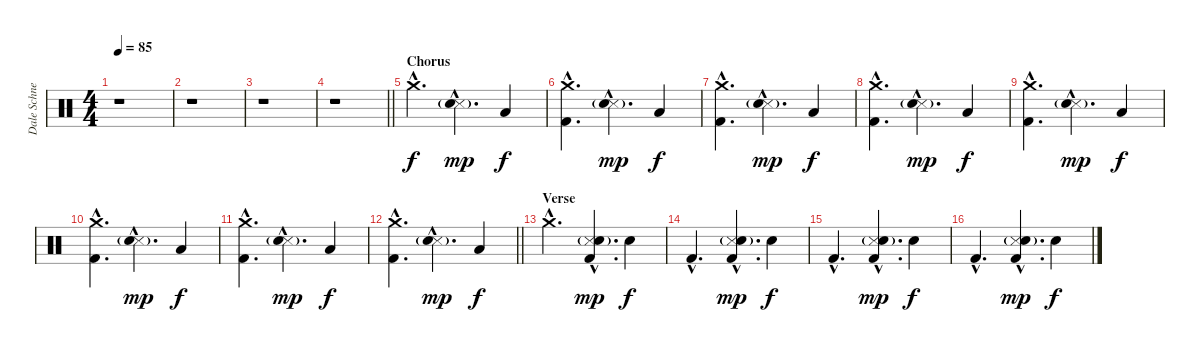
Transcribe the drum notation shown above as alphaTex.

\track ("Dale Schnettler (Drums)" "Dale Schne") {instrument percussion}
\staff {score}
\articulation defaults
\ts (4 4)
\tempo 85
\clef neutral
\ks c
r.1{dy f} |
r.1 |
r.1 |
\barLineRight lightlight
r.1 |
\section ("" "Chorus")
"Crash medium (hit)"{hac}.4{d} ("Snare (side stick) 3"{hac} "Electric Snare (hit)"{g hac}).4{d dy mp} "Low Tom (hit)".4{dy f} |
("Crash medium (hit)"{hac} "Kick (hit) 2"{hac}).4{d} ("Snare (side stick) 3"{hac} "Electric Snare (hit)"{g hac}).4{d dy mp} "Low Tom (hit)".4{dy f} |
("Crash medium (hit)"{hac} "Kick (hit) 2"{hac}).4{d} ("Snare (side stick) 3"{hac} "Electric Snare (hit)"{g hac}).4{d dy mp} "Low Tom (hit)".4{dy f} |
("Crash medium (hit)"{hac} "Kick (hit) 2"{hac}).4{d} ("Snare (side stick) 3"{hac} "Electric Snare (hit)"{g hac}).4{d dy mp} "Low Tom (hit)".4{dy f} |
("Crash medium (hit)"{hac} "Kick (hit) 2"{hac}).4{d} ("Snare (side stick) 3"{hac} "Electric Snare (hit)"{g hac}).4{d dy mp} "Low Tom (hit)".4{dy f} |
("Crash medium (hit)"{hac} "Kick (hit) 2"{hac}).4{d} ("Snare (side stick) 3"{hac} "Electric Snare (hit)"{g hac}).4{d dy mp} "Low Tom (hit)".4{dy f} |
("Crash medium (hit)"{hac} "Kick (hit) 2"{hac}).4{d} ("Snare (side stick) 3"{hac} "Electric Snare (hit)"{g hac}).4{d dy mp} "Low Tom (hit)".4{dy f} |
\barLineRight lightlight
("Crash medium (hit)"{hac} "Kick (hit) 2"{hac}).4{d} ("Snare (side stick) 3"{hac} "Electric Snare (hit)"{g hac}).4{d dy mp} "Low Tom (hit)".4{dy f} |
\section ("" "Verse")
"Crash medium (hit)"{hac}.4{d} ("Snare (side stick) 3"{hac} "Electric Snare (hit)"{g hac} "Kick (hit) 2"{hac}).4{d dy mp} "Electric Snare (hit)".4{dy f} |
"Kick (hit) 2"{hac}.4{d} ("Snare (side stick) 3"{hac} "Electric Snare (hit)"{g hac} "Kick (hit) 2"{hac}).4{d dy mp} "Electric Snare (hit)".4{dy f} |
"Kick (hit) 2"{hac}.4{d} ("Snare (side stick) 3"{hac} "Electric Snare (hit)"{g hac} "Kick (hit) 2"{hac}).4{d dy mp} "Electric Snare (hit)".4{dy f} |
"Kick (hit) 2"{hac}.4{d} ("Snare (side stick) 3"{hac} "Electric Snare (hit)"{g hac} "Kick (hit) 2"{hac}).4{d dy mp} "Electric Snare (hit)".4{dy f}
